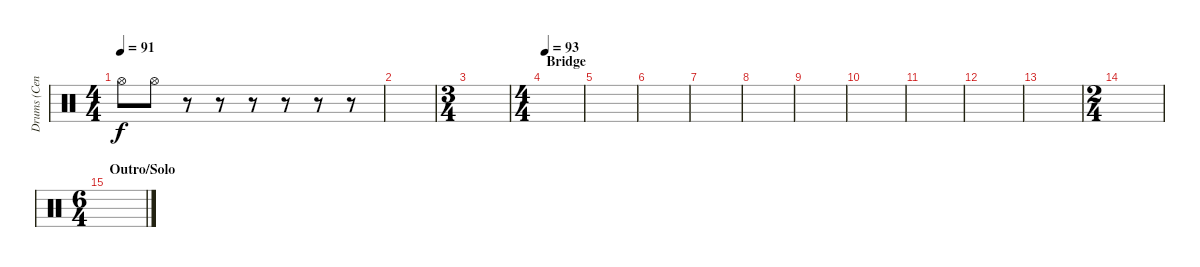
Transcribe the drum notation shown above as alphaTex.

\track ("Drums (Cenk)" "Drums (Cen") {instrument percussion}
\staff {score}
\articulation defaults
\ts (4 4)
\tempo 91
\clef neutral
\ks c "Hi-Hat (open)".8{dy f} "Hi-Hat (open)".8
r.8 r.8 r.8 r.8 r.8 r.8 |
|
\ts (3 4)
|
\ts (4 4)
\section ("" "Bridge")
\tempo 93
|
|
|
|
|
|
|
|
|
|
\ts (2 4)
|
\ts (6 4)
\section ("" "Outro/Solo")
